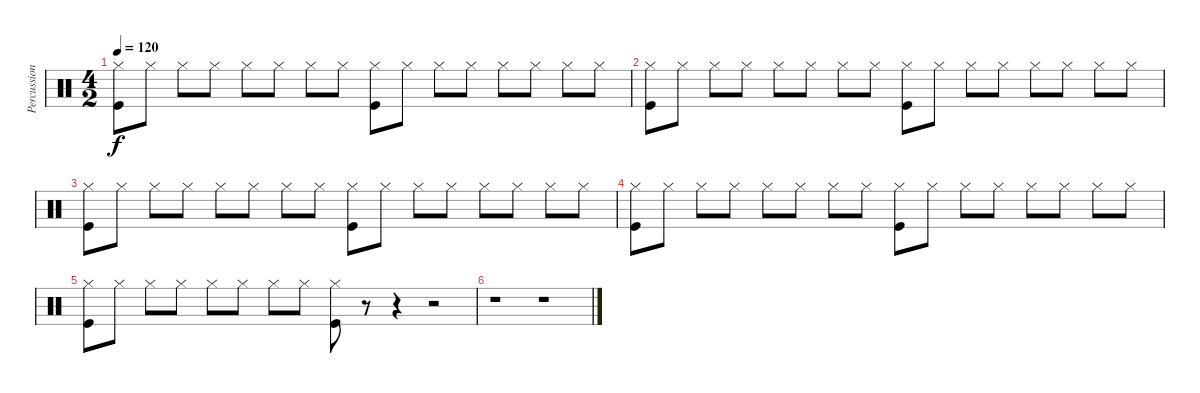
\track ("Percussion" "Percussion") {instrument percussion}
\staff {score}
\articulation defaults
\ts (4 2)
\tempo 120
\clef neutral
\ks c
("Hi-Hat (closed)" "Kick (hit)").8{dy f} "Hi-Hat (closed)".8 "Hi-Hat (closed)".8 "Hi-Hat (closed)".8 "Hi-Hat (closed)".8 "Hi-Hat (closed)".8 "Hi-Hat (closed)".8 "Hi-Hat (closed)".8 ("Hi-Hat (closed)" "Kick (hit)").8 "Hi-Hat (closed)".8 "Hi-Hat (closed)".8 "Hi-Hat (closed)".8 "Hi-Hat (closed)".8 "Hi-Hat (closed)".8 "Hi-Hat (closed)".8 "Hi-Hat (closed)".8 |
("Hi-Hat (closed)" "Kick (hit)").8 "Hi-Hat (closed)".8 "Hi-Hat (closed)".8 "Hi-Hat (closed)".8 "Hi-Hat (closed)".8 "Hi-Hat (closed)".8 "Hi-Hat (closed)".8 "Hi-Hat (closed)".8 ("Hi-Hat (closed)" "Kick (hit)").8 "Hi-Hat (closed)".8 "Hi-Hat (closed)".8 "Hi-Hat (closed)".8 "Hi-Hat (closed)".8 "Hi-Hat (closed)".8 "Hi-Hat (closed)".8 "Hi-Hat (closed)".8 |
("Hi-Hat (closed)" "Kick (hit)").8 "Hi-Hat (closed)".8 "Hi-Hat (closed)".8 "Hi-Hat (closed)".8 "Hi-Hat (closed)".8 "Hi-Hat (closed)".8 "Hi-Hat (closed)".8 "Hi-Hat (closed)".8 ("Hi-Hat (closed)" "Kick (hit)").8 "Hi-Hat (closed)".8 "Hi-Hat (closed)".8 "Hi-Hat (closed)".8 "Hi-Hat (closed)".8 "Hi-Hat (closed)".8 "Hi-Hat (closed)".8 "Hi-Hat (closed)".8 |
("Hi-Hat (closed)" "Kick (hit)").8 "Hi-Hat (closed)".8 "Hi-Hat (closed)".8 "Hi-Hat (closed)".8 "Hi-Hat (closed)".8 "Hi-Hat (closed)".8 "Hi-Hat (closed)".8 "Hi-Hat (closed)".8 ("Hi-Hat (closed)" "Kick (hit)").8 "Hi-Hat (closed)".8 "Hi-Hat (closed)".8 "Hi-Hat (closed)".8 "Hi-Hat (closed)".8 "Hi-Hat (closed)".8 "Hi-Hat (closed)".8 "Hi-Hat (closed)".8 |
("Hi-Hat (closed)" "Kick (hit)").8 "Hi-Hat (closed)".8 "Hi-Hat (closed)".8 "Hi-Hat (closed)".8 "Hi-Hat (closed)".8 "Hi-Hat (closed)".8 "Hi-Hat (closed)".8 "Hi-Hat (closed)".8 ("Hi-Hat (closed)" "Kick (hit)").8 r.8 r.4 r.2 |
r.1 r.1
